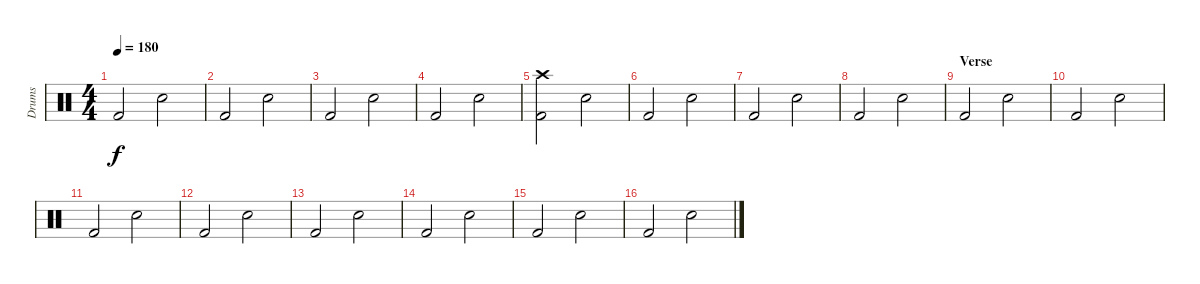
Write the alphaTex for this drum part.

\track ("Drums" "Drums") {instrument percussion}
\staff {score}
\articulation defaults
\ts (4 4)
\tempo 180
\clef neutral
\ks c "Kick (hit) 2".2{dy f} "Snare (hit) 2".2
|
"Kick (hit) 2".2 "Snare (hit) 2".2 |
"Kick (hit) 2".2 "Snare (hit) 2".2 |
"Kick (hit) 2".2 "Snare (hit) 2".2 |
("Crash high (hit)" "Kick (hit) 2").2 "Snare (hit) 2".2 |
"Kick (hit) 2".2 "Snare (hit) 2".2 |
"Kick (hit) 2".2 "Snare (hit) 2".2 |
"Kick (hit) 2".2 "Snare (hit) 2".2 |
\section ("" "Verse")
"Kick (hit) 2".2 "Snare (hit) 2".2 |
"Kick (hit) 2".2 "Snare (hit) 2".2 |
"Kick (hit) 2".2 "Snare (hit) 2".2 |
"Kick (hit) 2".2 "Snare (hit) 2".2 |
"Kick (hit) 2".2 "Snare (hit) 2".2 |
"Kick (hit) 2".2 "Snare (hit) 2".2 |
"Kick (hit) 2".2 "Snare (hit) 2".2 |
"Kick (hit) 2".2 "Snare (hit) 2".2
